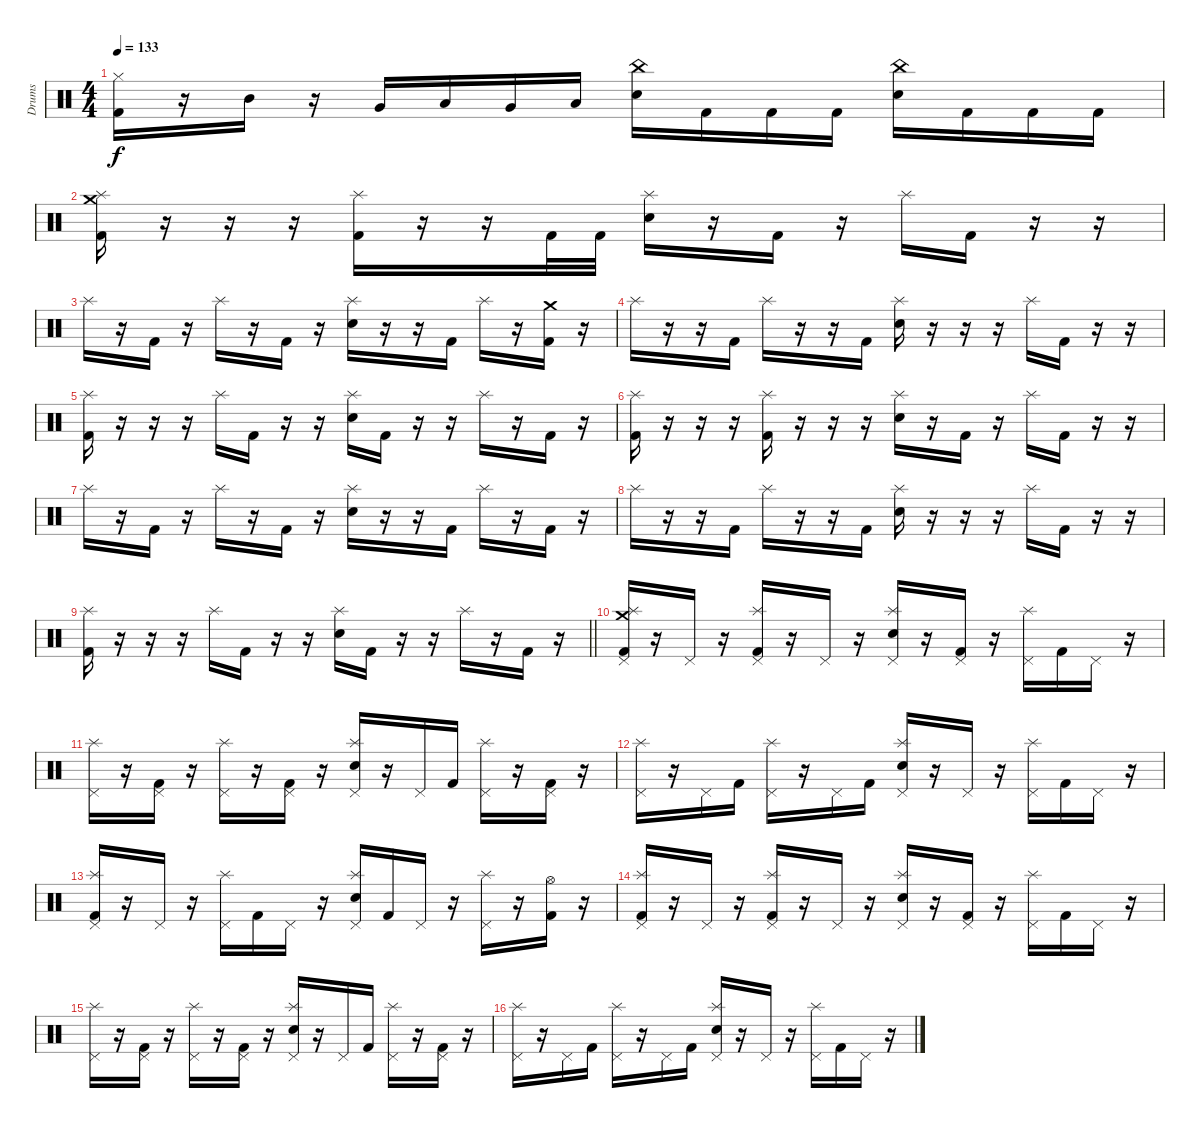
\track ("Drums" "Drums") {instrument percussion}
\staff {score}
\articulation defaults
\ts (4 4)
\tempo 133
\clef neutral
\ks c
("Hi-Hat (closed)" "Kick (hit) 2").16{dy f} r.16 "Mid Tom (hit)".16 r.16 "Very Low Tom (hit)".16 "Low Tom (hit)".16 "Very Low Tom (hit)".16 "Low Floor Tom (hit)".16 ("China (hit)" "Electric Snare (hit)").16 "Kick (hit) 2".16 "Kick (hit) 2".16 "Kick (hit) 2".16 ("China (hit)" "Electric Snare (hit)").16 "Kick (hit) 2".16 "Kick (hit) 2".16 "Kick (hit) 2".16 |
("Crash medium (hit)" "Splash (hit)" "Kick (hit) 2").16 r.16 r.16 r.16 ("Splash (hit)" "Kick (hit) 2").16 r.16 r.16 "Kick (hit) 2".32 "Kick (hit) 2".32 ("Splash (hit)" "Electric Snare (hit)").16 r.16 "Kick (hit) 2".16 r.16 "Splash (hit)".16 "Kick (hit) 2".16 r.16 r.16 |
"Splash (hit)".16 r.16 "Kick (hit) 2".16 r.16 "Splash (hit)".16 r.16 "Kick (hit) 2".16 r.16 ("Splash (hit)" "Electric Snare (hit)").16 r.16 r.16 "Kick (hit) 2".16 "Splash (hit)".16 r.16 ("Crash medium (hit)" "Kick (hit) 2").16 r.16 |
"Splash (hit)".16 r.16 r.16 "Kick (hit) 2".16 "Splash (hit)".16 r.16 r.16 "Kick (hit) 2".16 ("Splash (hit)" "Electric Snare (hit)").16 r.16 r.16 r.16 "Splash (hit)".16 "Kick (hit) 2".16 r.16 r.16 |
("Splash (hit)" "Kick (hit) 2").16 r.16 r.16 r.16 "Splash (hit)".16 "Kick (hit) 2".16 r.16 r.16 ("Splash (hit)" "Electric Snare (hit)").16 "Kick (hit) 2".16 r.16 r.16 "Splash (hit)".16 r.16 "Kick (hit) 2".16 r.16 |
("Splash (hit)" "Kick (hit) 2").16 r.16 r.16 r.16 ("Splash (hit)" "Kick (hit) 2").16 r.16 r.16 r.16 ("Splash (hit)" "Electric Snare (hit)").16 r.16 "Kick (hit) 2".16 r.16 "Splash (hit)".16 "Kick (hit) 2".16 r.16 r.16 |
"Splash (hit)".16 r.16 "Kick (hit) 2".16 r.16 "Splash (hit)".16 r.16 "Kick (hit) 2".16 r.16 ("Splash (hit)" "Electric Snare (hit)").16 r.16 r.16 "Kick (hit) 2".16 "Splash (hit)".16 r.16 "Kick (hit) 2".16 r.16 |
"Splash (hit)".16 r.16 r.16 "Kick (hit) 2".16 "Splash (hit)".16 r.16 r.16 "Kick (hit) 2".16 ("Splash (hit)" "Electric Snare (hit)").16 r.16 r.16 r.16 "Splash (hit)".16 "Kick (hit) 2".16 r.16 r.16 |
\barLineRight lightlight
("Splash (hit)" "Kick (hit) 2").16 r.16 r.16 r.16 "Splash (hit)".16 "Kick (hit) 2".16 r.16 r.16 ("Splash (hit)" "Electric Snare (hit)").16 "Kick (hit) 2".16 r.16 r.16 "Splash (hit)".16 r.16 "Kick (hit) 2".16 r.16 |
\section ("" "")
("Crash medium (hit)" "Splash (hit)" "Pedal Hi-Hat (hit)" "Kick (hit) 2").16 r.16 "Pedal Hi-Hat (hit)".16 r.16 ("Splash (hit)" "Pedal Hi-Hat (hit)" "Kick (hit) 2").16 r.16 "Pedal Hi-Hat (hit)".16 r.16 ("Splash (hit)" "Pedal Hi-Hat (hit)" "Electric Snare (hit)").16 r.16 ("Pedal Hi-Hat (hit)" "Kick (hit) 2").16 r.16 ("Splash (hit)" "Pedal Hi-Hat (hit)").16 "Kick (hit) 2".16 "Pedal Hi-Hat (hit)".16 r.16 |
("Splash (hit)" "Pedal Hi-Hat (hit)").16 r.16 ("Pedal Hi-Hat (hit)" "Kick (hit) 2").16 r.16 ("Splash (hit)" "Pedal Hi-Hat (hit)").16 r.16 ("Pedal Hi-Hat (hit)" "Kick (hit) 2").16 r.16 ("Splash (hit)" "Pedal Hi-Hat (hit)" "Electric Snare (hit)").16 r.16 "Pedal Hi-Hat (hit)".16 "Kick (hit) 2".16 ("Splash (hit)" "Pedal Hi-Hat (hit)").16 r.16 ("Pedal Hi-Hat (hit)" "Kick (hit) 2").16 r.16 |
("Splash (hit)" "Pedal Hi-Hat (hit)").16 r.16 "Pedal Hi-Hat (hit)".16 "Kick (hit) 2".16 ("Splash (hit)" "Pedal Hi-Hat (hit)").16 r.16 "Pedal Hi-Hat (hit)".16 "Kick (hit) 2".16 ("Splash (hit)" "Pedal Hi-Hat (hit)" "Electric Snare (hit)").16 r.16 "Pedal Hi-Hat (hit)".16 r.16 ("Splash (hit)" "Pedal Hi-Hat (hit)").16 "Kick (hit) 2".16 "Pedal Hi-Hat (hit)".16 r.16 |
("Splash (hit)" "Pedal Hi-Hat (hit)" "Kick (hit) 2").16 r.16 "Pedal Hi-Hat (hit)".16 r.16 ("Splash (hit)" "Pedal Hi-Hat (hit)").16 "Kick (hit) 2".16 "Pedal Hi-Hat (hit)".16 r.16 ("Splash (hit)" "Pedal Hi-Hat (hit)" "Electric Snare (hit)").16 "Kick (hit) 2".16 "Pedal Hi-Hat (hit)".16 r.16 ("Splash (hit)" "Pedal Hi-Hat (hit)").16 r.16 ("Hi-Hat (open)" "Kick (hit) 2").16 r.16 |
("Splash (hit)" "Pedal Hi-Hat (hit)" "Kick (hit) 2").16 r.16 "Pedal Hi-Hat (hit)".16 r.16 ("Splash (hit)" "Pedal Hi-Hat (hit)" "Kick (hit) 2").16 r.16 "Pedal Hi-Hat (hit)".16 r.16 ("Splash (hit)" "Pedal Hi-Hat (hit)" "Electric Snare (hit)").16 r.16 ("Pedal Hi-Hat (hit)" "Kick (hit) 2").16 r.16 ("Splash (hit)" "Pedal Hi-Hat (hit)").16 "Kick (hit) 2".16 "Pedal Hi-Hat (hit)".16 r.16 |
("Splash (hit)" "Pedal Hi-Hat (hit)").16 r.16 ("Pedal Hi-Hat (hit)" "Kick (hit) 2").16 r.16 ("Splash (hit)" "Pedal Hi-Hat (hit)").16 r.16 ("Pedal Hi-Hat (hit)" "Kick (hit) 2").16 r.16 ("Splash (hit)" "Pedal Hi-Hat (hit)" "Electric Snare (hit)").16 r.16 "Pedal Hi-Hat (hit)".16 "Kick (hit) 2".16 ("Splash (hit)" "Pedal Hi-Hat (hit)").16 r.16 ("Pedal Hi-Hat (hit)" "Kick (hit) 2").16 r.16 |
("Splash (hit)" "Pedal Hi-Hat (hit)").16 r.16 "Pedal Hi-Hat (hit)".16 "Kick (hit) 2".16 ("Splash (hit)" "Pedal Hi-Hat (hit)").16 r.16 "Pedal Hi-Hat (hit)".16 "Kick (hit) 2".16 ("Splash (hit)" "Pedal Hi-Hat (hit)" "Electric Snare (hit)").16 r.16 "Pedal Hi-Hat (hit)".16 r.16 ("Splash (hit)" "Pedal Hi-Hat (hit)").16 "Kick (hit) 2".16 "Pedal Hi-Hat (hit)".16 r.16
